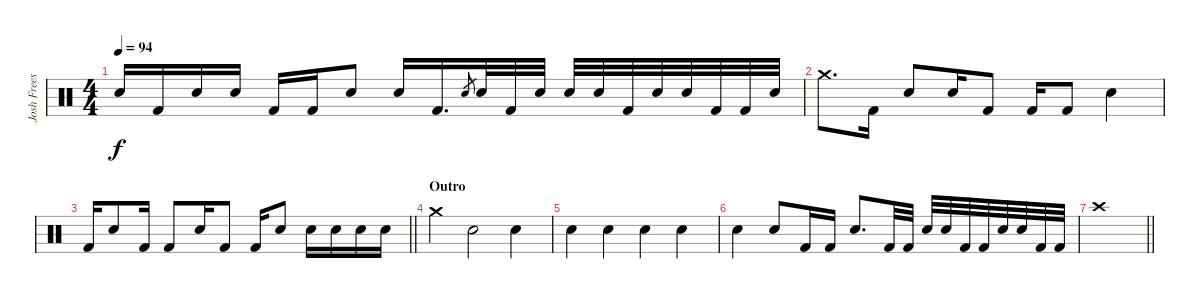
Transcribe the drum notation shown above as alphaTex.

\track ("Josh Freese (Studio Drummer)" "Josh Frees") {instrument percussion}
\staff {score}
\articulation defaults
\ts (4 4)
\tempo 94
\clef neutral
\ks c "Electric Snare (hit)".16{dy f} "Kick (hit) 2".16 "Electric Snare (hit)".16 "Electric Snare (hit)".16 "Kick (hit) 2".16 "Kick (hit) 2".16 "Electric Snare (hit)".8 "Electric Snare (hit)".16 "Kick (hit) 2".16{d} "Electric Snare (hit)".8{gr} "Electric Snare (hit)".32 "Kick (hit) 2".32 "Electric Snare (hit)".32 "Electric Snare (hit)".32 "Electric Snare (hit)".32 "Kick (hit) 2".32 "Electric Snare (hit)".32 "Electric Snare (hit)".32 "Kick (hit) 2".32 "Kick (hit) 2".32 "Electric Snare (hit)".32
|
"Crash medium (hit)".8{d} "Kick (hit) 2".16 "Electric Snare (hit)".8 "Electric Snare (hit)".16 "Kick (hit) 2".8 "Kick (hit) 2".16 "Kick (hit) 2".8 "Electric Snare (hit)".4 |
\barLineRight lightlight "Kick (hit) 2".16 "Electric Snare (hit)".8 "Kick (hit) 2".16 "Kick (hit) 2".8 "Electric Snare (hit)".16 "Kick (hit) 2".8 "Kick (hit) 2".16 "Electric Snare (hit)".8 "Electric Snare (hit)".16 "Electric Snare (hit)".16 "Electric Snare (hit)".16 "Electric Snare (hit)".16
|
\section ("" "Outro")
"Crash medium (hit)".4 "Electric Snare (hit)".2 "Electric Snare (hit)".4 |
"Electric Snare (hit)".4 "Electric Snare (hit)".4 "Electric Snare (hit)".4 "Electric Snare (hit)".4 |
"Electric Snare (hit)".4 "Electric Snare (hit)".8 "Kick (hit) 2".16 "Kick (hit) 2".16 "Electric Snare (hit)".8{d} "Kick (hit) 2".32 "Kick (hit) 2".32 "Electric Snare (hit)".32 "Electric Snare (hit)".32 "Kick (hit) 2".32 "Kick (hit) 2".32 "Electric Snare (hit)".32 "Electric Snare (hit)".32 "Kick (hit) 2".32 "Kick (hit) 2".32 |
\barLineRight lightlight "Crash high (hit)".1
